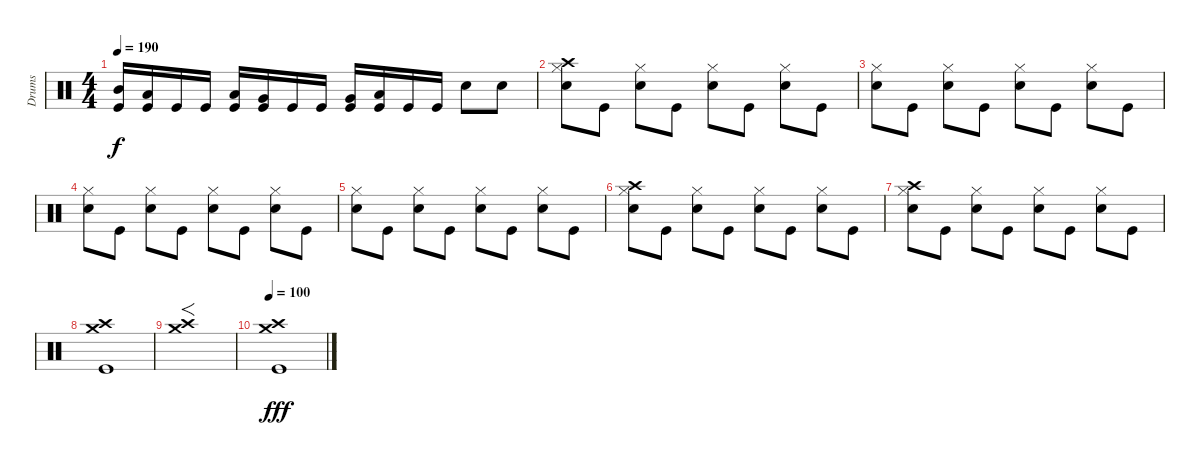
\track ("Drums" "Drums") {instrument percussion}
\staff {score}
\articulation defaults
\ts (4 4)
\tempo 190
\clef neutral
\ks c
("Mid Tom (hit)" "Kick (hit)").16{dy f} ("Low Tom (hit)" "Kick (hit)").16 "Kick (hit)".16 "Kick (hit)".16 ("Low Tom (hit)" "Kick (hit)").16 ("Very Low Tom (hit)" "Kick (hit)").16 "Kick (hit)".16 "Kick (hit)".16 ("Very Low Tom (hit)" "Kick (hit)").16 ("Low Floor Tom (hit)" "Kick (hit)").16 "Kick (hit)".16 "Kick (hit)".16 "Snare (hit) 2".8 "Snare (hit) 2".8 |
("Crash high (hit)" "Hi-Hat (closed)" "Snare (hit) 2").8 "Kick (hit)".8 ("Hi-Hat (closed)" "Snare (hit) 2").8 "Kick (hit)".8 ("Hi-Hat (closed)" "Snare (hit) 2").8 "Kick (hit)".8 ("Hi-Hat (closed)" "Snare (hit) 2").8 "Kick (hit)".8 |
("Hi-Hat (closed)" "Snare (hit) 2").8 "Kick (hit)".8 ("Hi-Hat (closed)" "Snare (hit) 2").8 "Kick (hit)".8 ("Hi-Hat (closed)" "Snare (hit) 2").8 "Kick (hit)".8 ("Hi-Hat (closed)" "Snare (hit) 2").8 "Kick (hit)".8 |
("Hi-Hat (closed)" "Snare (hit) 2").8 "Kick (hit)".8 ("Hi-Hat (closed)" "Snare (hit) 2").8 "Kick (hit)".8 ("Hi-Hat (closed)" "Snare (hit) 2").8 "Kick (hit)".8 ("Hi-Hat (closed)" "Snare (hit) 2").8 "Kick (hit)".8 |
("Hi-Hat (closed)" "Snare (hit) 2").8 "Kick (hit)".8 ("Hi-Hat (closed)" "Snare (hit) 2").8 "Kick (hit)".8 ("Hi-Hat (closed)" "Snare (hit) 2").8 "Kick (hit)".8 ("Hi-Hat (closed)" "Snare (hit) 2").8 "Kick (hit)".8 |
("Crash high (hit)" "Hi-Hat (closed)" "Snare (hit) 2").8 "Kick (hit)".8 ("Hi-Hat (closed)" "Snare (hit) 2").8 "Kick (hit)".8 ("Hi-Hat (closed)" "Snare (hit) 2").8 "Kick (hit)".8 ("Hi-Hat (closed)" "Snare (hit) 2").8 "Kick (hit)".8 |
("Crash high (hit)" "Hi-Hat (closed)" "Snare (hit) 2").8 "Kick (hit)".8 ("Hi-Hat (closed)" "Snare (hit) 2").8 "Kick (hit)".8 ("Hi-Hat (closed)" "Snare (hit) 2").8 "Kick (hit)".8 ("Hi-Hat (closed)" "Snare (hit) 2").8 "Kick (hit)".8 |
("Crash high (hit)" "Crash medium (hit)" "Kick (hit)").1 |
("Crash high (hit)" "Crash medium (hit)").1{f} |
\tempo 100
("Crash high (hit)" "Crash medium (hit)" "Kick (hit)").1{dy fff}
